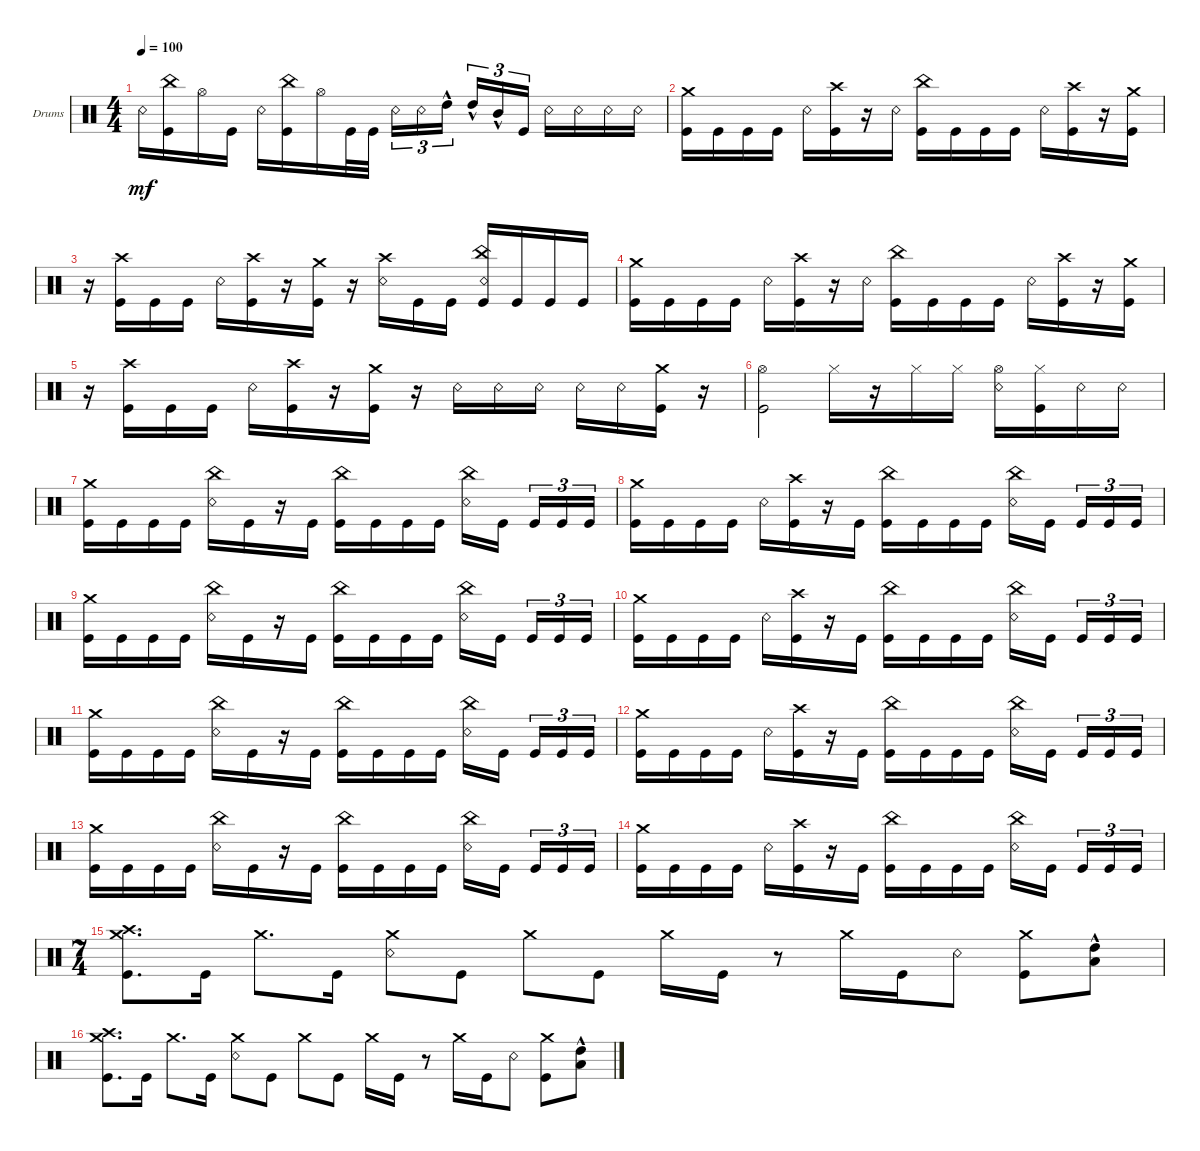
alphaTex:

\defaultSystemsLayout 4
\bracketExtendMode groupsimilarinstruments
\firstSystemTrackNameOrientation horizontal
\otherSystemsTrackNameOrientation horizontal
\track ("Drumkit" "Drums") {instrument percussion}
\staff {score}
\articulation defaults
\ts (4 4)
\tempo 100
\clef neutral
\ks c "Snare (rim shot)".16{dy mf}
("China (hit)" "Kick (hit)").16 "Hi-Hat (open)".16 "Kick (hit)".16 "Snare (rim shot)".16 ("China (hit)" "Kick (hit)").16 "Hi-Hat (open)".16 "Kick (hit)".32 "Kick (hit)".32 "Snare (rim shot)".16{tu (3 2)} "Snare (rim shot)".16{tu (3 2)} "High Tom (hit)"{hac}.16{tu (3 2)} "High Tom (hit)"{hac}.16{tu (3 2)} "Mid Tom (hit)"{hac}.16{tu (3 2)} "Kick (hit)".16{tu (3 2)} "Snare (rim shot)".16 "Snare (rim shot)".16 "Snare (rim shot)".16 "Snare (rim shot)".16 |
("Kick (hit)" "Crash medium (hit)").16 "Kick (hit)".16 "Kick (hit)".16 "Kick (hit)".16 "Snare (rim shot)".16 ("Kick (hit)" "Crash high (hit)").16 r.16 "Snare (rim shot)".16 ("Kick (hit)" "China (hit)").16 "Kick (hit)".16 "Kick (hit)".16 "Kick (hit)".16 "Snare (rim shot)".16 ("Kick (hit)" "Crash high (hit)").16 r.16 ("Kick (hit)" "Crash medium (hit)").16 |
r.16 ("Kick (hit)" "Crash high (hit)").16 "Kick (hit)".16 "Kick (hit)".16 "Snare (rim shot)".16 ("Kick (hit)" "Crash high (hit)").16 r.16 ("Kick (hit)" "Crash medium (hit)").16 r.16 ("Snare (rim shot)" "Crash high (hit)").16 "Kick (hit)".16 "Kick (hit)".16 ("Snare (rim shot)" "China (hit)" "Kick (hit)").16 "Kick (hit)".16 "Kick (hit)".16 "Kick (hit)".16 |
("Kick (hit)" "Crash medium (hit)").16 "Kick (hit)".16 "Kick (hit)".16 "Kick (hit)".16 "Snare (rim shot)".16 ("Kick (hit)" "Crash high (hit)").16 r.16 "Snare (rim shot)".16 ("Kick (hit)" "China (hit)").16 "Kick (hit)".16 "Kick (hit)".16 "Kick (hit)".16 "Snare (rim shot)".16 ("Kick (hit)" "Crash high (hit)").16 r.16 ("Kick (hit)" "Crash medium (hit)").16 |
r.16 ("Kick (hit)" "Crash high (hit)").16 "Kick (hit)".16 "Kick (hit)".16 "Snare (rim shot)".16 ("Kick (hit)" "Crash high (hit)").16 r.16 ("Kick (hit)" "Crash medium (hit)").16 r.16 "Snare (rim shot)".16 "Snare (rim shot)".16 "Snare (rim shot)".16 "Snare (rim shot)".16 "Snare (rim shot)".16 ("Kick (hit)" "Crash medium (hit)").16 r.16 |
("Kick (hit)" "Hi-Hat (open)").2 "Hi-Hat (closed)".16 r.16 "Hi-Hat (closed)".16 "Hi-Hat (closed)".16 ("Snare (rim shot)" "Hi-Hat (open)").16 ("Kick (hit)" "Hi-Hat (closed)").16 "Snare (rim shot)".16 "Snare (rim shot)".16 |
("Kick (hit)" "Crash medium (hit)").16 "Kick (hit)".16 "Kick (hit)".16 "Kick (hit)".16 ("Snare (rim shot)" "China (hit)").16 "Kick (hit)".16 r.16 "Kick (hit)".16 ("Kick (hit)" "China (hit)").16 "Kick (hit)".16 "Kick (hit)".16 "Kick (hit)".16 ("China (hit)" "Snare (rim shot)").16 "Kick (hit)".16 "Kick (hit)".16{tu (3 2)} "Kick (hit)".16{tu (3 2)} "Kick (hit)".16{tu (3 2)} |
("Kick (hit)" "Crash medium (hit)").16 "Kick (hit)".16 "Kick (hit)".16 "Kick (hit)".16 "Snare (rim shot)".16 ("Kick (hit)" "Crash high (hit)").16 r.16 "Kick (hit)".16 ("Kick (hit)" "China (hit)").16 "Kick (hit)".16 "Kick (hit)".16 "Kick (hit)".16 ("China (hit)" "Snare (rim shot)").16 "Kick (hit)".16 "Kick (hit)".16{tu (3 2)} "Kick (hit)".16{tu (3 2)} "Kick (hit)".16{tu (3 2)} |
("Kick (hit)" "Crash medium (hit)").16 "Kick (hit)".16 "Kick (hit)".16 "Kick (hit)".16 ("Snare (rim shot)" "China (hit)").16 "Kick (hit)".16 r.16 "Kick (hit)".16 ("Kick (hit)" "China (hit)").16 "Kick (hit)".16 "Kick (hit)".16 "Kick (hit)".16 ("China (hit)" "Snare (rim shot)").16 "Kick (hit)".16 "Kick (hit)".16{tu (3 2)} "Kick (hit)".16{tu (3 2)} "Kick (hit)".16{tu (3 2)} |
("Kick (hit)" "Crash medium (hit)").16 "Kick (hit)".16 "Kick (hit)".16 "Kick (hit)".16 "Snare (rim shot)".16 ("Kick (hit)" "Crash high (hit)").16 r.16 "Kick (hit)".16 ("Kick (hit)" "China (hit)").16 "Kick (hit)".16 "Kick (hit)".16 "Kick (hit)".16 ("China (hit)" "Snare (rim shot)").16 "Kick (hit)".16 "Kick (hit)".16{tu (3 2)} "Kick (hit)".16{tu (3 2)} "Kick (hit)".16{tu (3 2)} |
("Kick (hit)" "Crash medium (hit)").16 "Kick (hit)".16 "Kick (hit)".16 "Kick (hit)".16 ("Snare (rim shot)" "China (hit)").16 "Kick (hit)".16 r.16 "Kick (hit)".16 ("Kick (hit)" "China (hit)").16 "Kick (hit)".16 "Kick (hit)".16 "Kick (hit)".16 ("China (hit)" "Snare (rim shot)").16 "Kick (hit)".16 "Kick (hit)".16{tu (3 2)} "Kick (hit)".16{tu (3 2)} "Kick (hit)".16{tu (3 2)} |
("Kick (hit)" "Crash medium (hit)").16 "Kick (hit)".16 "Kick (hit)".16 "Kick (hit)".16 "Snare (rim shot)".16 ("Kick (hit)" "Crash high (hit)").16 r.16 "Kick (hit)".16 ("Kick (hit)" "China (hit)").16 "Kick (hit)".16 "Kick (hit)".16 "Kick (hit)".16 ("China (hit)" "Snare (rim shot)").16 "Kick (hit)".16 "Kick (hit)".16{tu (3 2)} "Kick (hit)".16{tu (3 2)} "Kick (hit)".16{tu (3 2)} |
("Kick (hit)" "Crash medium (hit)").16 "Kick (hit)".16 "Kick (hit)".16 "Kick (hit)".16 ("Snare (rim shot)" "China (hit)").16 "Kick (hit)".16 r.16 "Kick (hit)".16 ("Kick (hit)" "China (hit)").16 "Kick (hit)".16 "Kick (hit)".16 "Kick (hit)".16 ("China (hit)" "Snare (rim shot)").16 "Kick (hit)".16 "Kick (hit)".16{tu (3 2)} "Kick (hit)".16{tu (3 2)} "Kick (hit)".16{tu (3 2)} |
("Kick (hit)" "Crash medium (hit)").16 "Kick (hit)".16 "Kick (hit)".16 "Kick (hit)".16 "Snare (rim shot)".16 ("Kick (hit)" "Crash high (hit)").16 r.16 "Kick (hit)".16 ("Kick (hit)" "China (hit)").16 "Kick (hit)".16 "Kick (hit)".16 "Kick (hit)".16 ("China (hit)" "Snare (rim shot)").16 "Kick (hit)".16 "Kick (hit)".16{tu (3 2)} "Kick (hit)".16{tu (3 2)} "Kick (hit)".16{tu (3 2)} |
\ts (7 4)
("Kick (hit)" "Crash high (hit)" "Crash medium (hit)").8{d} "Kick (hit)".16 "Crash medium (hit)".8{d} "Kick (hit)".16 ("Snare (rim shot)" "Crash medium (hit)").8 "Kick (hit)".8 "Crash medium (hit)".8 "Kick (hit)".8 "Crash medium (hit)".16 "Kick (hit)".16 r.8 "Crash medium (hit)".16 "Kick (hit)".16 "Snare (rim shot)".8 ("Kick (hit)" "Crash medium (hit)").8 ("Low Tom (hit)"{hac} "High Tom (hit)"{hac}).8 |
("Kick (hit)" "Crash high (hit)" "Crash medium (hit)").8{d} "Kick (hit)".16 "Crash medium (hit)".8{d} "Kick (hit)".16 ("Snare (rim shot)" "Crash medium (hit)").8 "Kick (hit)".8 "Crash medium (hit)".8 "Kick (hit)".8 "Crash medium (hit)".16 "Kick (hit)".16 r.8 "Crash medium (hit)".16 "Kick (hit)".16 "Snare (rim shot)".8 ("Kick (hit)" "Crash medium (hit)").8 ("Low Tom (hit)"{hac} "High Tom (hit)"{hac}).8
